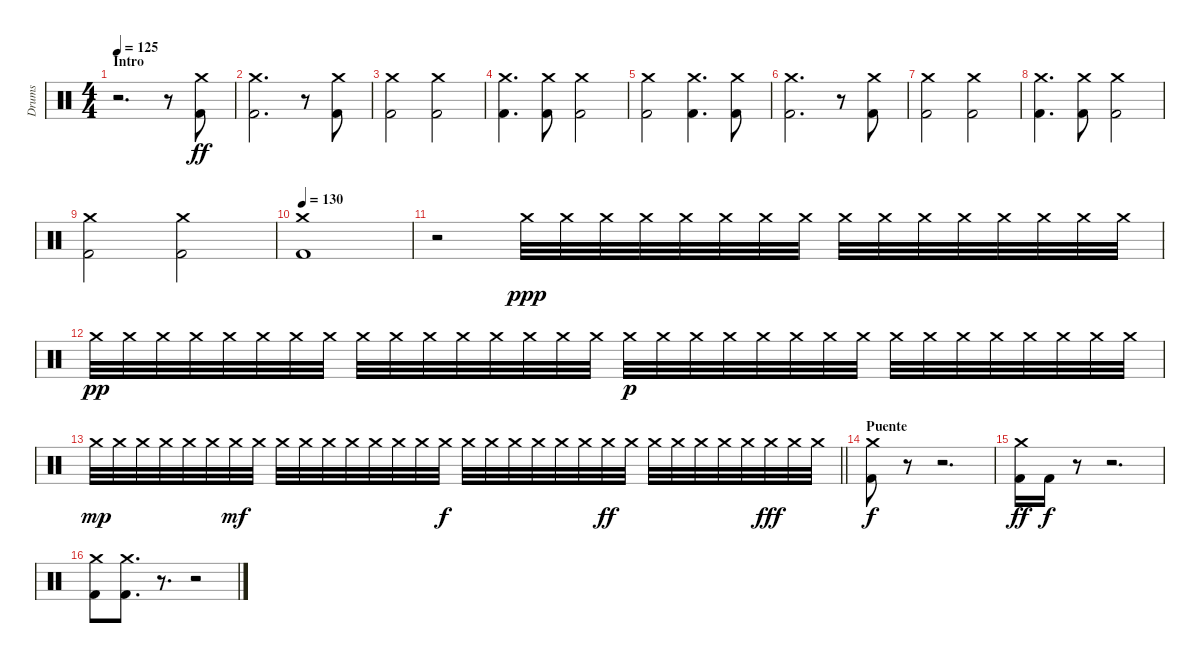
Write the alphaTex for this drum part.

\track ("Drums" "Drums") {instrument percussion}
\staff {score}
\articulation defaults
\ts (4 4)
\section ("" "Intro")
\tempo 125
\tempo 115
\tempo 125
\clef neutral
\ks c
r.2{d dy ff} r.8 ("Kick (hit) 2" "Crash medium (hit)").8 |
("Kick (hit) 2" "Crash medium (hit)").2{d} r.8 ("Kick (hit) 2" "Crash medium (hit)").8 |
("Kick (hit) 2" "Crash medium (hit)").2 ("Kick (hit) 2" "Crash medium (hit)").2 |
("Kick (hit) 2" "Crash medium (hit)").4{d} ("Kick (hit) 2" "Crash medium (hit)").8 ("Kick (hit) 2" "Crash medium (hit)").2 |
("Kick (hit) 2" "Crash medium (hit)").2 ("Kick (hit) 2" "Crash medium (hit)").4{d} ("Kick (hit) 2" "Crash medium (hit)").8 |
("Kick (hit) 2" "Crash medium (hit)").2{d} r.8 ("Kick (hit) 2" "Crash medium (hit)").8 |
("Kick (hit) 2" "Crash medium (hit)").2 ("Kick (hit) 2" "Crash medium (hit)").2 |
("Kick (hit) 2" "Crash medium (hit)").4{d} ("Kick (hit) 2" "Crash medium (hit)").8 ("Kick (hit) 2" "Crash medium (hit)").2 |
("Kick (hit) 2" "Crash medium (hit)").2 ("Kick (hit) 2" "Crash medium (hit)").2 |
\tempo 130
("Kick (hit) 2" "Crash medium (hit)").1 |
r.2 "Crash medium (hit)".32{dy ppp} "Crash medium (hit)".32 "Crash medium (hit)".32 "Crash medium (hit)".32 "Crash medium (hit)".32 "Crash medium (hit)".32 "Crash medium (hit)".32 "Crash medium (hit)".32 "Crash medium (hit)".32 "Crash medium (hit)".32 "Crash medium (hit)".32 "Crash medium (hit)".32 "Crash medium (hit)".32 "Crash medium (hit)".32 "Crash medium (hit)".32 "Crash medium (hit)".32 |
"Crash medium (hit)".32{dy pp} "Crash medium (hit)".32 "Crash medium (hit)".32 "Crash medium (hit)".32 "Crash medium (hit)".32 "Crash medium (hit)".32 "Crash medium (hit)".32 "Crash medium (hit)".32 "Crash medium (hit)".32 "Crash medium (hit)".32 "Crash medium (hit)".32 "Crash medium (hit)".32 "Crash medium (hit)".32 "Crash medium (hit)".32 "Crash medium (hit)".32 "Crash medium (hit)".32 "Crash medium (hit)".32{dy p} "Crash medium (hit)".32 "Crash medium (hit)".32 "Crash medium (hit)".32 "Crash medium (hit)".32 "Crash medium (hit)".32 "Crash medium (hit)".32 "Crash medium (hit)".32 "Crash medium (hit)".32 "Crash medium (hit)".32 "Crash medium (hit)".32 "Crash medium (hit)".32 "Crash medium (hit)".32 "Crash medium (hit)".32 "Crash medium (hit)".32 "Crash medium (hit)".32 |
\barLineRight lightlight "Crash medium (hit)".32{dy mp} "Crash medium (hit)".32 "Crash medium (hit)".32 "Crash medium (hit)".32 "Crash medium (hit)".32 "Crash medium (hit)".32 "Crash medium (hit)".32{dy mf} "Crash medium (hit)".32 "Crash medium (hit)".32 "Crash medium (hit)".32 "Crash medium (hit)".32 "Crash medium (hit)".32 "Crash medium (hit)".32 "Crash medium (hit)".32 "Crash medium (hit)".32 "Crash medium (hit)".32{dy f} "Crash medium (hit)".32 "Crash medium (hit)".32 "Crash medium (hit)".32 "Crash medium (hit)".32 "Crash medium (hit)".32 "Crash medium (hit)".32 "Crash medium (hit)".32{dy ff} "Crash medium (hit)".32 "Crash medium (hit)".32 "Crash medium (hit)".32 "Crash medium (hit)".32 "Crash medium (hit)".32 "Crash medium (hit)".32 "Crash medium (hit)".32{dy fff} "Crash medium (hit)".32 "Crash medium (hit)".32
|
\section ("" "Puente")
("Kick (hit) 2" "Crash medium (hit)").8{dy f} r.8 r.2{d} |
("Kick (hit) 2" "Crash medium (hit)").16{dy ff} "Kick (hit) 2".16{dy f} r.8 r.2{d} |
("Kick (hit) 2" "Crash medium (hit)").8 ("Kick (hit) 2" "Crash medium (hit)").8{d} r.8{d} r.2
